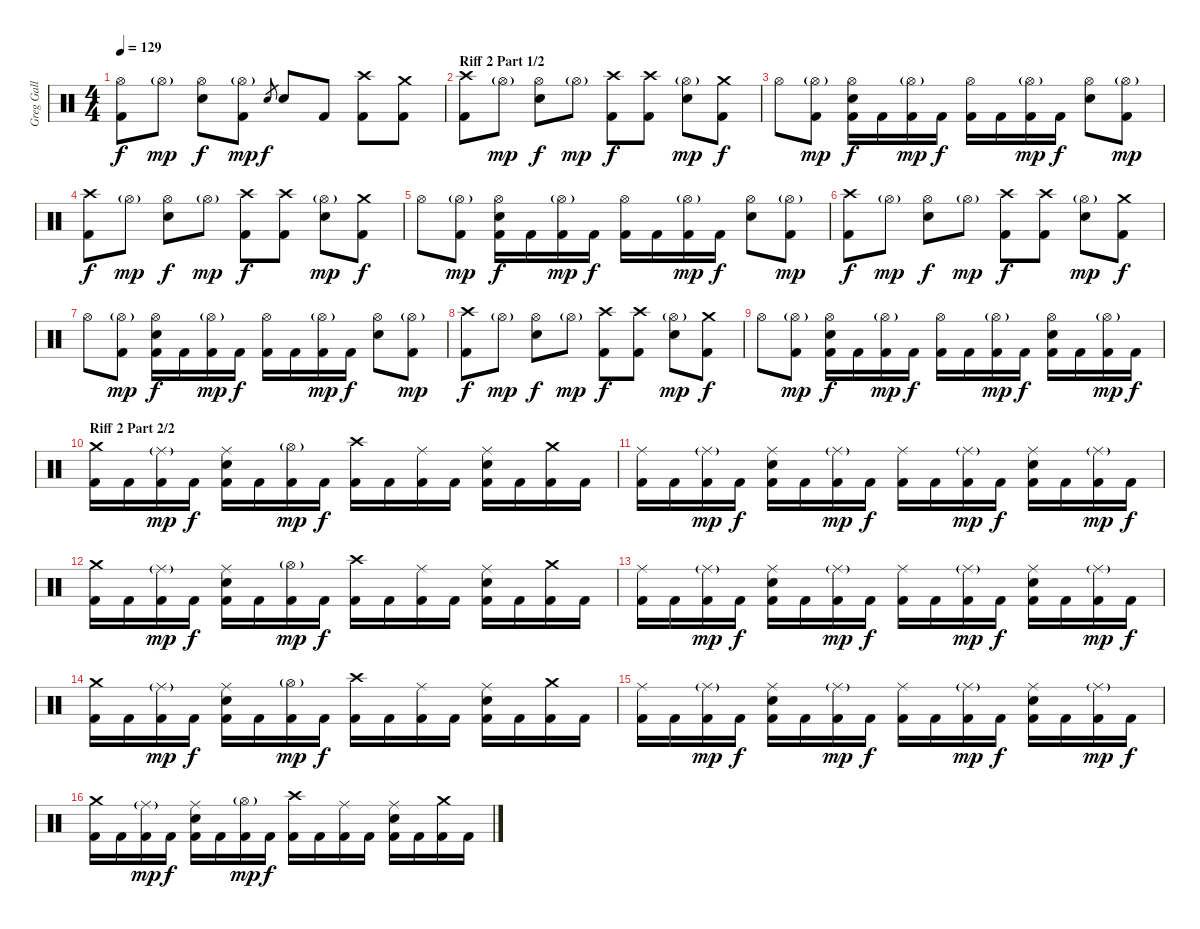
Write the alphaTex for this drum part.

\track ("Greg Gall (Drums)" "Greg Gall ") {instrument percussion}
\staff {score}
\articulation defaults
\ts (4 4)
\tempo 129
\clef neutral
\ks c
("Hi-Hat (open)" "Kick (hit) 2").8{dy f} "Hi-Hat (open)"{g}.8{dy mp} ("Hi-Hat (open)" "Electric Snare (hit)").8{dy f} ("Hi-Hat (open)"{g} "Kick (hit) 2").8{dy mp} "Electric Snare (hit)".8{gr dy f} "Electric Snare (hit)".8 "Kick (hit) 2".8 ("Crash high (hit)" "Kick (hit) 2").8 ("Crash medium (hit)" "Kick (hit) 2").8 |
\section ("" "Riff 2 Part 1/2")
("Crash high (hit)" "Kick (hit) 2").8 "Hi-Hat (open)"{g}.8{dy mp} ("Hi-Hat (open)" "Electric Snare (hit)").8{dy f} "Hi-Hat (open)"{g}.8{dy mp} ("Crash high (hit)" "Kick (hit) 2").8{dy f} ("Crash high (hit)" "Kick (hit) 2").8 ("Hi-Hat (open)"{g} "Electric Snare (hit)").8{dy mp} ("Crash medium (hit)" "Kick (hit) 2").8{dy f} |
"Hi-Hat (open)".8 ("Hi-Hat (open)"{g} "Kick (hit) 2").8{dy mp} ("Hi-Hat (open)" "Electric Snare (hit)" "Kick (hit) 2").16{dy f} "Kick (hit) 2".16 ("Hi-Hat (open)"{g} "Kick (hit) 2").16{dy mp} "Kick (hit) 2".16{dy f} ("Hi-Hat (open)" "Kick (hit) 2").16 "Kick (hit) 2".16 ("Hi-Hat (open)"{g} "Kick (hit) 2").16{dy mp} "Kick (hit) 2".16{dy f} ("Hi-Hat (open)" "Electric Snare (hit)").8 ("Hi-Hat (open)"{g} "Kick (hit) 2").8{dy mp} |
("Crash high (hit)" "Kick (hit) 2").8{dy f} "Hi-Hat (open)"{g}.8{dy mp} ("Hi-Hat (open)" "Electric Snare (hit)").8{dy f} "Hi-Hat (open)"{g}.8{dy mp} ("Crash high (hit)" "Kick (hit) 2").8{dy f} ("Crash high (hit)" "Kick (hit) 2").8 ("Hi-Hat (open)"{g} "Electric Snare (hit)").8{dy mp} ("Crash medium (hit)" "Kick (hit) 2").8{dy f} |
"Hi-Hat (open)".8 ("Hi-Hat (open)"{g} "Kick (hit) 2").8{dy mp} ("Hi-Hat (open)" "Electric Snare (hit)" "Kick (hit) 2").16{dy f} "Kick (hit) 2".16 ("Hi-Hat (open)"{g} "Kick (hit) 2").16{dy mp} "Kick (hit) 2".16{dy f} ("Hi-Hat (open)" "Kick (hit) 2").16 "Kick (hit) 2".16 ("Hi-Hat (open)"{g} "Kick (hit) 2").16{dy mp} "Kick (hit) 2".16{dy f} ("Hi-Hat (open)" "Electric Snare (hit)").8 ("Hi-Hat (open)"{g} "Kick (hit) 2").8{dy mp} |
("Crash high (hit)" "Kick (hit) 2").8{dy f} "Hi-Hat (open)"{g}.8{dy mp} ("Hi-Hat (open)" "Electric Snare (hit)").8{dy f} "Hi-Hat (open)"{g}.8{dy mp} ("Crash high (hit)" "Kick (hit) 2").8{dy f} ("Crash high (hit)" "Kick (hit) 2").8 ("Hi-Hat (open)"{g} "Electric Snare (hit)").8{dy mp} ("Crash medium (hit)" "Kick (hit) 2").8{dy f} |
"Hi-Hat (open)".8 ("Hi-Hat (open)"{g} "Kick (hit) 2").8{dy mp} ("Hi-Hat (open)" "Electric Snare (hit)" "Kick (hit) 2").16{dy f} "Kick (hit) 2".16 ("Hi-Hat (open)"{g} "Kick (hit) 2").16{dy mp} "Kick (hit) 2".16{dy f} ("Hi-Hat (open)" "Kick (hit) 2").16 "Kick (hit) 2".16 ("Hi-Hat (open)"{g} "Kick (hit) 2").16{dy mp} "Kick (hit) 2".16{dy f} ("Hi-Hat (open)" "Electric Snare (hit)").8 ("Hi-Hat (open)"{g} "Kick (hit) 2").8{dy mp} |
("Crash high (hit)" "Kick (hit) 2").8{dy f} "Hi-Hat (open)"{g}.8{dy mp} ("Hi-Hat (open)" "Electric Snare (hit)").8{dy f} "Hi-Hat (open)"{g}.8{dy mp} ("Crash high (hit)" "Kick (hit) 2").8{dy f} ("Crash high (hit)" "Kick (hit) 2").8 ("Hi-Hat (open)"{g} "Electric Snare (hit)").8{dy mp} ("Crash medium (hit)" "Kick (hit) 2").8{dy f} |
"Hi-Hat (open)".8 ("Hi-Hat (open)"{g} "Kick (hit) 2").8{dy mp} ("Hi-Hat (open)" "Electric Snare (hit)" "Kick (hit) 2").16{dy f} "Kick (hit) 2".16 ("Hi-Hat (open)"{g} "Kick (hit) 2").16{dy mp} "Kick (hit) 2".16{dy f} ("Hi-Hat (open)" "Kick (hit) 2").16 "Kick (hit) 2".16 ("Hi-Hat (open)"{g} "Kick (hit) 2").16{dy mp} "Kick (hit) 2".16{dy f} ("Hi-Hat (open)" "Electric Snare (hit)" "Kick (hit) 2").16 "Kick (hit) 2".16 ("Hi-Hat (open)"{g} "Kick (hit) 2").16{dy mp} "Kick (hit) 2".16{dy f} |
\section ("" "Riff 2 Part 2/2")
("Crash medium (hit)" "Kick (hit) 2").16 "Kick (hit) 2".16 ("Ride (middle)"{g} "Kick (hit) 2").16{dy mp} "Kick (hit) 2".16{dy f} ("Ride (middle)" "Electric Snare (hit)" "Kick (hit) 2").16 "Kick (hit) 2".16 ("Hi-Hat (open)"{g} "Kick (hit) 2").16{dy mp} "Kick (hit) 2".16{dy f} ("Crash high (hit)" "Kick (hit) 2").16 "Kick (hit) 2".16 ("Ride (middle)" "Kick (hit) 2").16 "Kick (hit) 2".16 ("Ride (middle)" "Electric Snare (hit)" "Kick (hit) 2").16 "Kick (hit) 2".16 ("Crash medium (hit)" "Kick (hit) 2").16 "Kick (hit) 2".16 |
("Ride (middle)" "Kick (hit) 2").16 "Kick (hit) 2".16 ("Ride (middle)"{g} "Kick (hit) 2").16{dy mp} "Kick (hit) 2".16{dy f} ("Ride (middle)" "Electric Snare (hit)" "Kick (hit) 2").16 "Kick (hit) 2".16 ("Ride (middle)"{g} "Kick (hit) 2").16{dy mp} "Kick (hit) 2".16{dy f} ("Ride (middle)" "Kick (hit) 2").16 "Kick (hit) 2".16 ("Ride (middle)"{g} "Kick (hit) 2").16{dy mp} "Kick (hit) 2".16{dy f} ("Ride (middle)" "Electric Snare (hit)" "Kick (hit) 2").16 "Kick (hit) 2".16 ("Ride (middle)"{g} "Kick (hit) 2").16{dy mp} "Kick (hit) 2".16{dy f} |
("Crash medium (hit)" "Kick (hit) 2").16 "Kick (hit) 2".16 ("Ride (middle)"{g} "Kick (hit) 2").16{dy mp} "Kick (hit) 2".16{dy f} ("Ride (middle)" "Electric Snare (hit)" "Kick (hit) 2").16 "Kick (hit) 2".16 ("Hi-Hat (open)"{g} "Kick (hit) 2").16{dy mp} "Kick (hit) 2".16{dy f} ("Crash high (hit)" "Kick (hit) 2").16 "Kick (hit) 2".16 ("Ride (middle)" "Kick (hit) 2").16 "Kick (hit) 2".16 ("Ride (middle)" "Electric Snare (hit)" "Kick (hit) 2").16 "Kick (hit) 2".16 ("Crash medium (hit)" "Kick (hit) 2").16 "Kick (hit) 2".16 |
("Ride (middle)" "Kick (hit) 2").16 "Kick (hit) 2".16 ("Ride (middle)"{g} "Kick (hit) 2").16{dy mp} "Kick (hit) 2".16{dy f} ("Ride (middle)" "Electric Snare (hit)" "Kick (hit) 2").16 "Kick (hit) 2".16 ("Ride (middle)"{g} "Kick (hit) 2").16{dy mp} "Kick (hit) 2".16{dy f} ("Ride (middle)" "Kick (hit) 2").16 "Kick (hit) 2".16 ("Ride (middle)"{g} "Kick (hit) 2").16{dy mp} "Kick (hit) 2".16{dy f} ("Ride (middle)" "Electric Snare (hit)" "Kick (hit) 2").16 "Kick (hit) 2".16 ("Ride (middle)"{g} "Kick (hit) 2").16{dy mp} "Kick (hit) 2".16{dy f} |
("Crash medium (hit)" "Kick (hit) 2").16 "Kick (hit) 2".16 ("Ride (middle)"{g} "Kick (hit) 2").16{dy mp} "Kick (hit) 2".16{dy f} ("Ride (middle)" "Electric Snare (hit)" "Kick (hit) 2").16 "Kick (hit) 2".16 ("Hi-Hat (open)"{g} "Kick (hit) 2").16{dy mp} "Kick (hit) 2".16{dy f} ("Crash high (hit)" "Kick (hit) 2").16 "Kick (hit) 2".16 ("Ride (middle)" "Kick (hit) 2").16 "Kick (hit) 2".16 ("Ride (middle)" "Electric Snare (hit)" "Kick (hit) 2").16 "Kick (hit) 2".16 ("Crash medium (hit)" "Kick (hit) 2").16 "Kick (hit) 2".16 |
("Ride (middle)" "Kick (hit) 2").16 "Kick (hit) 2".16 ("Ride (middle)"{g} "Kick (hit) 2").16{dy mp} "Kick (hit) 2".16{dy f} ("Ride (middle)" "Electric Snare (hit)" "Kick (hit) 2").16 "Kick (hit) 2".16 ("Ride (middle)"{g} "Kick (hit) 2").16{dy mp} "Kick (hit) 2".16{dy f} ("Ride (middle)" "Kick (hit) 2").16 "Kick (hit) 2".16 ("Ride (middle)"{g} "Kick (hit) 2").16{dy mp} "Kick (hit) 2".16{dy f} ("Ride (middle)" "Electric Snare (hit)" "Kick (hit) 2").16 "Kick (hit) 2".16 ("Ride (middle)"{g} "Kick (hit) 2").16{dy mp} "Kick (hit) 2".16{dy f} |
("Crash medium (hit)" "Kick (hit) 2").16 "Kick (hit) 2".16 ("Ride (middle)"{g} "Kick (hit) 2").16{dy mp} "Kick (hit) 2".16{dy f} ("Ride (middle)" "Electric Snare (hit)" "Kick (hit) 2").16 "Kick (hit) 2".16 ("Hi-Hat (open)"{g} "Kick (hit) 2").16{dy mp} "Kick (hit) 2".16{dy f} ("Crash high (hit)" "Kick (hit) 2").16 "Kick (hit) 2".16 ("Ride (middle)" "Kick (hit) 2").16 "Kick (hit) 2".16 ("Ride (middle)" "Electric Snare (hit)" "Kick (hit) 2").16 "Kick (hit) 2".16 ("Crash medium (hit)" "Kick (hit) 2").16 "Kick (hit) 2".16
